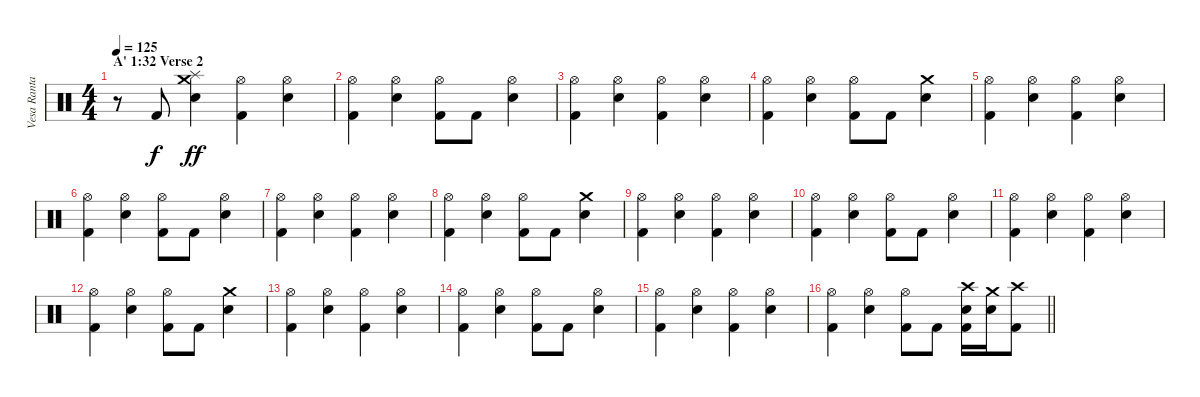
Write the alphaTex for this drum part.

\track ("Vesa Ranta (drums)" "Vesa Ranta") {instrument percussion}
\staff {score}
\articulation defaults
\ts (4 4)
\section ("" "A' 1:32 Verse 2 ")
\tempo 125
\clef neutral
\ks c
r.8{dy ff} "Kick (hit) 2".8{dy f} ("Splash (hit)" "Crash medium (hit)" "Electric Snare (hit)").4{dy ff} ("Hi-Hat (open)" "Kick (hit) 2").4 ("Hi-Hat (open)" "Electric Snare (hit)").4 |
("Hi-Hat (open)" "Kick (hit) 2").4 ("Hi-Hat (open)" "Electric Snare (hit)").4 ("Hi-Hat (open)" "Kick (hit) 2").8 "Kick (hit) 2".8 ("Hi-Hat (open)" "Electric Snare (hit)").4 |
("Hi-Hat (open)" "Kick (hit) 2").4 ("Hi-Hat (open)" "Electric Snare (hit)").4 ("Hi-Hat (open)" "Kick (hit) 2").4 ("Hi-Hat (open)" "Electric Snare (hit)").4 |
("Hi-Hat (open)" "Kick (hit) 2").4 ("Hi-Hat (open)" "Electric Snare (hit)").4 ("Hi-Hat (open)" "Kick (hit) 2").8 "Kick (hit) 2".8 ("Crash medium (hit)" "Electric Snare (hit)").4 |
("Hi-Hat (open)" "Kick (hit) 2").4 ("Hi-Hat (open)" "Electric Snare (hit)").4 ("Hi-Hat (open)" "Kick (hit) 2").4 ("Hi-Hat (open)" "Electric Snare (hit)").4 |
("Hi-Hat (open)" "Kick (hit) 2").4 ("Hi-Hat (open)" "Electric Snare (hit)").4 ("Hi-Hat (open)" "Kick (hit) 2").8 "Kick (hit) 2".8 ("Hi-Hat (open)" "Electric Snare (hit)").4 |
("Hi-Hat (open)" "Kick (hit) 2").4 ("Hi-Hat (open)" "Electric Snare (hit)").4 ("Hi-Hat (open)" "Kick (hit) 2").4 ("Hi-Hat (open)" "Electric Snare (hit)").4 |
("Hi-Hat (open)" "Kick (hit) 2").4 ("Hi-Hat (open)" "Electric Snare (hit)").4 ("Hi-Hat (open)" "Kick (hit) 2").8 "Kick (hit) 2".8 ("Crash medium (hit)" "Electric Snare (hit)").4 |
("Hi-Hat (open)" "Kick (hit) 2").4 ("Hi-Hat (open)" "Electric Snare (hit)").4 ("Hi-Hat (open)" "Kick (hit) 2").4 ("Hi-Hat (open)" "Electric Snare (hit)").4 |
("Hi-Hat (open)" "Kick (hit) 2").4 ("Hi-Hat (open)" "Electric Snare (hit)").4 ("Hi-Hat (open)" "Kick (hit) 2").8 "Kick (hit) 2".8 ("Hi-Hat (open)" "Electric Snare (hit)").4 |
("Hi-Hat (open)" "Kick (hit) 2").4 ("Hi-Hat (open)" "Electric Snare (hit)").4 ("Hi-Hat (open)" "Kick (hit) 2").4 ("Hi-Hat (open)" "Electric Snare (hit)").4 |
("Hi-Hat (open)" "Kick (hit) 2").4 ("Hi-Hat (open)" "Electric Snare (hit)").4 ("Hi-Hat (open)" "Kick (hit) 2").8 "Kick (hit) 2".8 ("Crash medium (hit)" "Electric Snare (hit)").4 |
("Hi-Hat (open)" "Kick (hit) 2").4 ("Hi-Hat (open)" "Electric Snare (hit)").4 ("Hi-Hat (open)" "Kick (hit) 2").4 ("Hi-Hat (open)" "Electric Snare (hit)").4 |
("Hi-Hat (open)" "Kick (hit) 2").4 ("Hi-Hat (open)" "Electric Snare (hit)").4 ("Hi-Hat (open)" "Kick (hit) 2").8 "Kick (hit) 2".8 ("Hi-Hat (open)" "Electric Snare (hit)").4 |
("Hi-Hat (open)" "Kick (hit) 2").4 ("Hi-Hat (open)" "Electric Snare (hit)").4 ("Hi-Hat (open)" "Kick (hit) 2").4 ("Hi-Hat (open)" "Electric Snare (hit)").4 |
\barLineRight lightlight
("Hi-Hat (open)" "Kick (hit) 2").4 ("Hi-Hat (open)" "Electric Snare (hit)").4 ("Hi-Hat (open)" "Kick (hit) 2").8 "Kick (hit) 2".8 ("Crash high (hit)" "Electric Snare (hit)" "Kick (hit) 2").16 ("Crash medium (hit)" "Electric Snare (hit)").16 ("Crash high (hit)" "Kick (hit) 2").8
